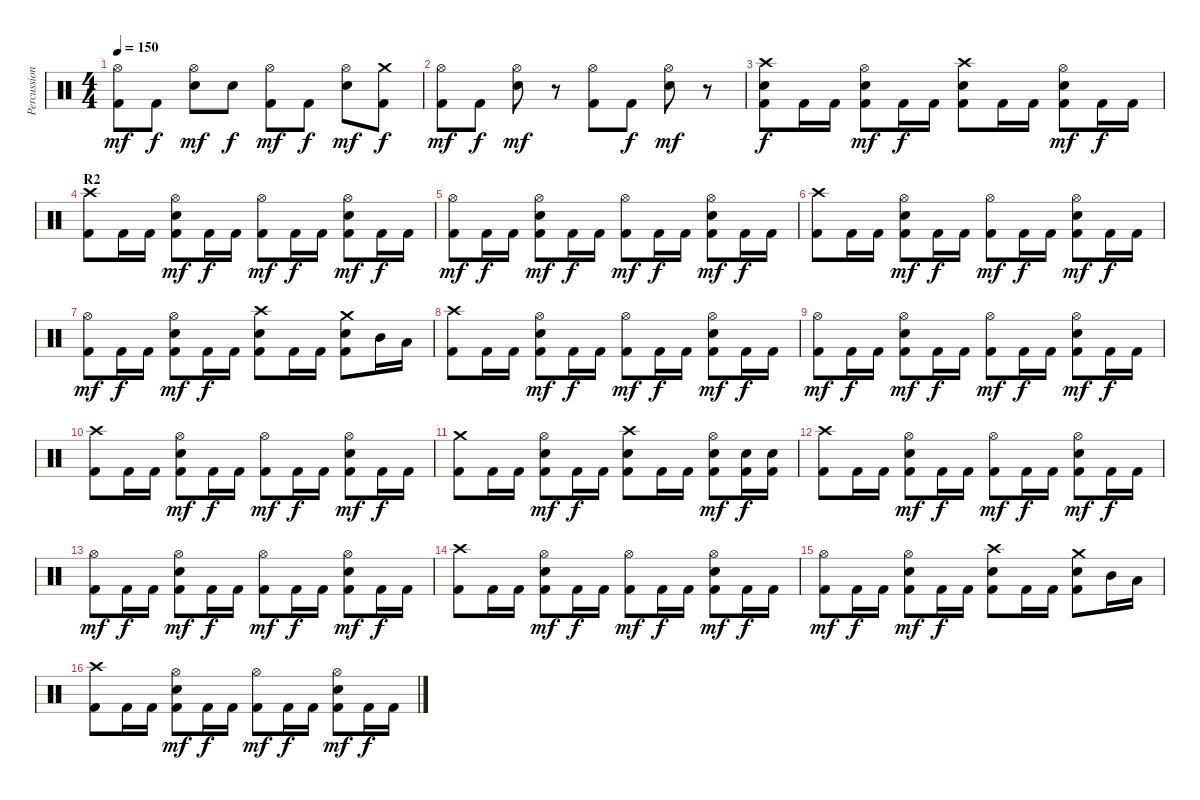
\track ("Percussion" "Percussion") {instrument percussion}
\staff {score}
\articulation defaults
\ts (4 4)
\tempo 150
\clef neutral
\ks c
("Hi-Hat (open)" "Kick (hit) 2").8{dy mf} "Kick (hit) 2".8{dy f} ("Hi-Hat (open)" "Electric Snare (hit)").8{dy mf} "Electric Snare (hit)".8{dy f} ("Hi-Hat (open)" "Kick (hit) 2").8{dy mf} "Kick (hit) 2".8{dy f} ("Hi-Hat (open)" "Electric Snare (hit)").8{dy mf} ("Crash medium (hit)" "Kick (hit) 2").8{dy f} |
("Hi-Hat (open)" "Kick (hit) 2").8{dy mf} "Kick (hit) 2".8{dy f} ("Hi-Hat (open)" "Electric Snare (hit)").8{dy mf} r.8 ("Hi-Hat (open)" "Kick (hit) 2").8 "Kick (hit) 2".8{dy f} ("Hi-Hat (open)" "Electric Snare (hit)").8{dy mf} r.8 |
("Crash high (hit)" "Electric Snare (hit)" "Kick (hit) 2").8{dy f} "Kick (hit) 2".16 "Kick (hit) 2".16 ("Hi-Hat (open)" "Electric Snare (hit)" "Kick (hit) 2").8{dy mf} "Kick (hit) 2".16{dy f} "Kick (hit) 2".16 ("Crash high (hit)" "Electric Snare (hit)" "Kick (hit) 2").8 "Kick (hit) 2".16 "Kick (hit) 2".16 ("Hi-Hat (open)" "Electric Snare (hit)" "Kick (hit) 2").8{dy mf} "Kick (hit) 2".16{dy f} "Kick (hit) 2".16 |
\section ("" "R2")
("Crash high (hit)" "Kick (hit) 2").8 "Kick (hit) 2".16 "Kick (hit) 2".16 ("Hi-Hat (open)" "Electric Snare (hit)" "Kick (hit) 2").8{dy mf} "Kick (hit) 2".16{dy f} "Kick (hit) 2".16 ("Hi-Hat (open)" "Kick (hit) 2").8{dy mf} "Kick (hit) 2".16{dy f} "Kick (hit) 2".16 ("Hi-Hat (open)" "Electric Snare (hit)" "Kick (hit) 2").8{dy mf} "Kick (hit) 2".16{dy f} "Kick (hit) 2".16 |
("Hi-Hat (open)" "Kick (hit) 2").8{dy mf} "Kick (hit) 2".16{dy f} "Kick (hit) 2".16 ("Hi-Hat (open)" "Electric Snare (hit)" "Kick (hit) 2").8{dy mf} "Kick (hit) 2".16{dy f} "Kick (hit) 2".16 ("Hi-Hat (open)" "Kick (hit) 2").8{dy mf} "Kick (hit) 2".16{dy f} "Kick (hit) 2".16 ("Hi-Hat (open)" "Electric Snare (hit)" "Kick (hit) 2").8{dy mf} "Kick (hit) 2".16{dy f} "Kick (hit) 2".16 |
("Crash high (hit)" "Kick (hit) 2").8 "Kick (hit) 2".16 "Kick (hit) 2".16 ("Hi-Hat (open)" "Electric Snare (hit)" "Kick (hit) 2").8{dy mf} "Kick (hit) 2".16{dy f} "Kick (hit) 2".16 ("Hi-Hat (open)" "Kick (hit) 2").8{dy mf} "Kick (hit) 2".16{dy f} "Kick (hit) 2".16 ("Hi-Hat (open)" "Electric Snare (hit)" "Kick (hit) 2").8{dy mf} "Kick (hit) 2".16{dy f} "Kick (hit) 2".16 |
("Hi-Hat (open)" "Kick (hit) 2").8{dy mf} "Kick (hit) 2".16{dy f} "Kick (hit) 2".16 ("Hi-Hat (open)" "Electric Snare (hit)" "Kick (hit) 2").8{dy mf} "Kick (hit) 2".16{dy f} "Kick (hit) 2".16 ("Crash high (hit)" "Electric Snare (hit)" "Kick (hit) 2").8 "Kick (hit) 2".16 "Kick (hit) 2".16 ("Crash medium (hit)" "Electric Snare (hit)" "Kick (hit) 2").8 "Mid Tom (hit)".16 "Low Tom (hit)".16 |
("Crash high (hit)" "Kick (hit) 2").8 "Kick (hit) 2".16 "Kick (hit) 2".16 ("Hi-Hat (open)" "Electric Snare (hit)" "Kick (hit) 2").8{dy mf} "Kick (hit) 2".16{dy f} "Kick (hit) 2".16 ("Hi-Hat (open)" "Kick (hit) 2").8{dy mf} "Kick (hit) 2".16{dy f} "Kick (hit) 2".16 ("Hi-Hat (open)" "Electric Snare (hit)" "Kick (hit) 2").8{dy mf} "Kick (hit) 2".16{dy f} "Kick (hit) 2".16 |
("Hi-Hat (open)" "Kick (hit) 2").8{dy mf} "Kick (hit) 2".16{dy f} "Kick (hit) 2".16 ("Hi-Hat (open)" "Electric Snare (hit)" "Kick (hit) 2").8{dy mf} "Kick (hit) 2".16{dy f} "Kick (hit) 2".16 ("Hi-Hat (open)" "Kick (hit) 2").8{dy mf} "Kick (hit) 2".16{dy f} "Kick (hit) 2".16 ("Hi-Hat (open)" "Electric Snare (hit)" "Kick (hit) 2").8{dy mf} "Kick (hit) 2".16{dy f} "Kick (hit) 2".16 |
("Crash high (hit)" "Kick (hit) 2").8 "Kick (hit) 2".16 "Kick (hit) 2".16 ("Hi-Hat (open)" "Electric Snare (hit)" "Kick (hit) 2").8{dy mf} "Kick (hit) 2".16{dy f} "Kick (hit) 2".16 ("Hi-Hat (open)" "Kick (hit) 2").8{dy mf} "Kick (hit) 2".16{dy f} "Kick (hit) 2".16 ("Hi-Hat (open)" "Electric Snare (hit)" "Kick (hit) 2").8{dy mf} "Kick (hit) 2".16{dy f} "Kick (hit) 2".16 |
("Crash medium (hit)" "Kick (hit) 2").8 "Kick (hit) 2".16 "Kick (hit) 2".16 ("Hi-Hat (open)" "Electric Snare (hit)" "Kick (hit) 2").8{dy mf} "Kick (hit) 2".16{dy f} "Kick (hit) 2".16 ("Crash high (hit)" "Electric Snare (hit)" "Kick (hit) 2").8 "Kick (hit) 2".16 "Kick (hit) 2".16 ("Hi-Hat (open)" "Electric Snare (hit)" "Kick (hit) 2").8{dy mf} ("Electric Snare (hit)" "Kick (hit) 2").16{dy f} ("Electric Snare (hit)" "Kick (hit) 2").16 |
\section ("" "")
("Crash high (hit)" "Kick (hit) 2").8 "Kick (hit) 2".16 "Kick (hit) 2".16 ("Hi-Hat (open)" "Electric Snare (hit)" "Kick (hit) 2").8{dy mf} "Kick (hit) 2".16{dy f} "Kick (hit) 2".16 ("Hi-Hat (open)" "Kick (hit) 2").8{dy mf} "Kick (hit) 2".16{dy f} "Kick (hit) 2".16 ("Hi-Hat (open)" "Electric Snare (hit)" "Kick (hit) 2").8{dy mf} "Kick (hit) 2".16{dy f} "Kick (hit) 2".16 |
("Hi-Hat (open)" "Kick (hit) 2").8{dy mf} "Kick (hit) 2".16{dy f} "Kick (hit) 2".16 ("Hi-Hat (open)" "Electric Snare (hit)" "Kick (hit) 2").8{dy mf} "Kick (hit) 2".16{dy f} "Kick (hit) 2".16 ("Hi-Hat (open)" "Kick (hit) 2").8{dy mf} "Kick (hit) 2".16{dy f} "Kick (hit) 2".16 ("Hi-Hat (open)" "Electric Snare (hit)" "Kick (hit) 2").8{dy mf} "Kick (hit) 2".16{dy f} "Kick (hit) 2".16 |
("Crash high (hit)" "Kick (hit) 2").8 "Kick (hit) 2".16 "Kick (hit) 2".16 ("Hi-Hat (open)" "Electric Snare (hit)" "Kick (hit) 2").8{dy mf} "Kick (hit) 2".16{dy f} "Kick (hit) 2".16 ("Hi-Hat (open)" "Kick (hit) 2").8{dy mf} "Kick (hit) 2".16{dy f} "Kick (hit) 2".16 ("Hi-Hat (open)" "Electric Snare (hit)" "Kick (hit) 2").8{dy mf} "Kick (hit) 2".16{dy f} "Kick (hit) 2".16 |
("Hi-Hat (open)" "Kick (hit) 2").8{dy mf} "Kick (hit) 2".16{dy f} "Kick (hit) 2".16 ("Hi-Hat (open)" "Electric Snare (hit)" "Kick (hit) 2").8{dy mf} "Kick (hit) 2".16{dy f} "Kick (hit) 2".16 ("Crash high (hit)" "Electric Snare (hit)" "Kick (hit) 2").8 "Kick (hit) 2".16 "Kick (hit) 2".16 ("Crash medium (hit)" "Electric Snare (hit)" "Kick (hit) 2").8 "Mid Tom (hit)".16 "Low Tom (hit)".16 |
("Crash high (hit)" "Kick (hit) 2").8 "Kick (hit) 2".16 "Kick (hit) 2".16 ("Hi-Hat (open)" "Electric Snare (hit)" "Kick (hit) 2").8{dy mf} "Kick (hit) 2".16{dy f} "Kick (hit) 2".16 ("Hi-Hat (open)" "Kick (hit) 2").8{dy mf} "Kick (hit) 2".16{dy f} "Kick (hit) 2".16 ("Hi-Hat (open)" "Electric Snare (hit)" "Kick (hit) 2").8{dy mf} "Kick (hit) 2".16{dy f} "Kick (hit) 2".16
